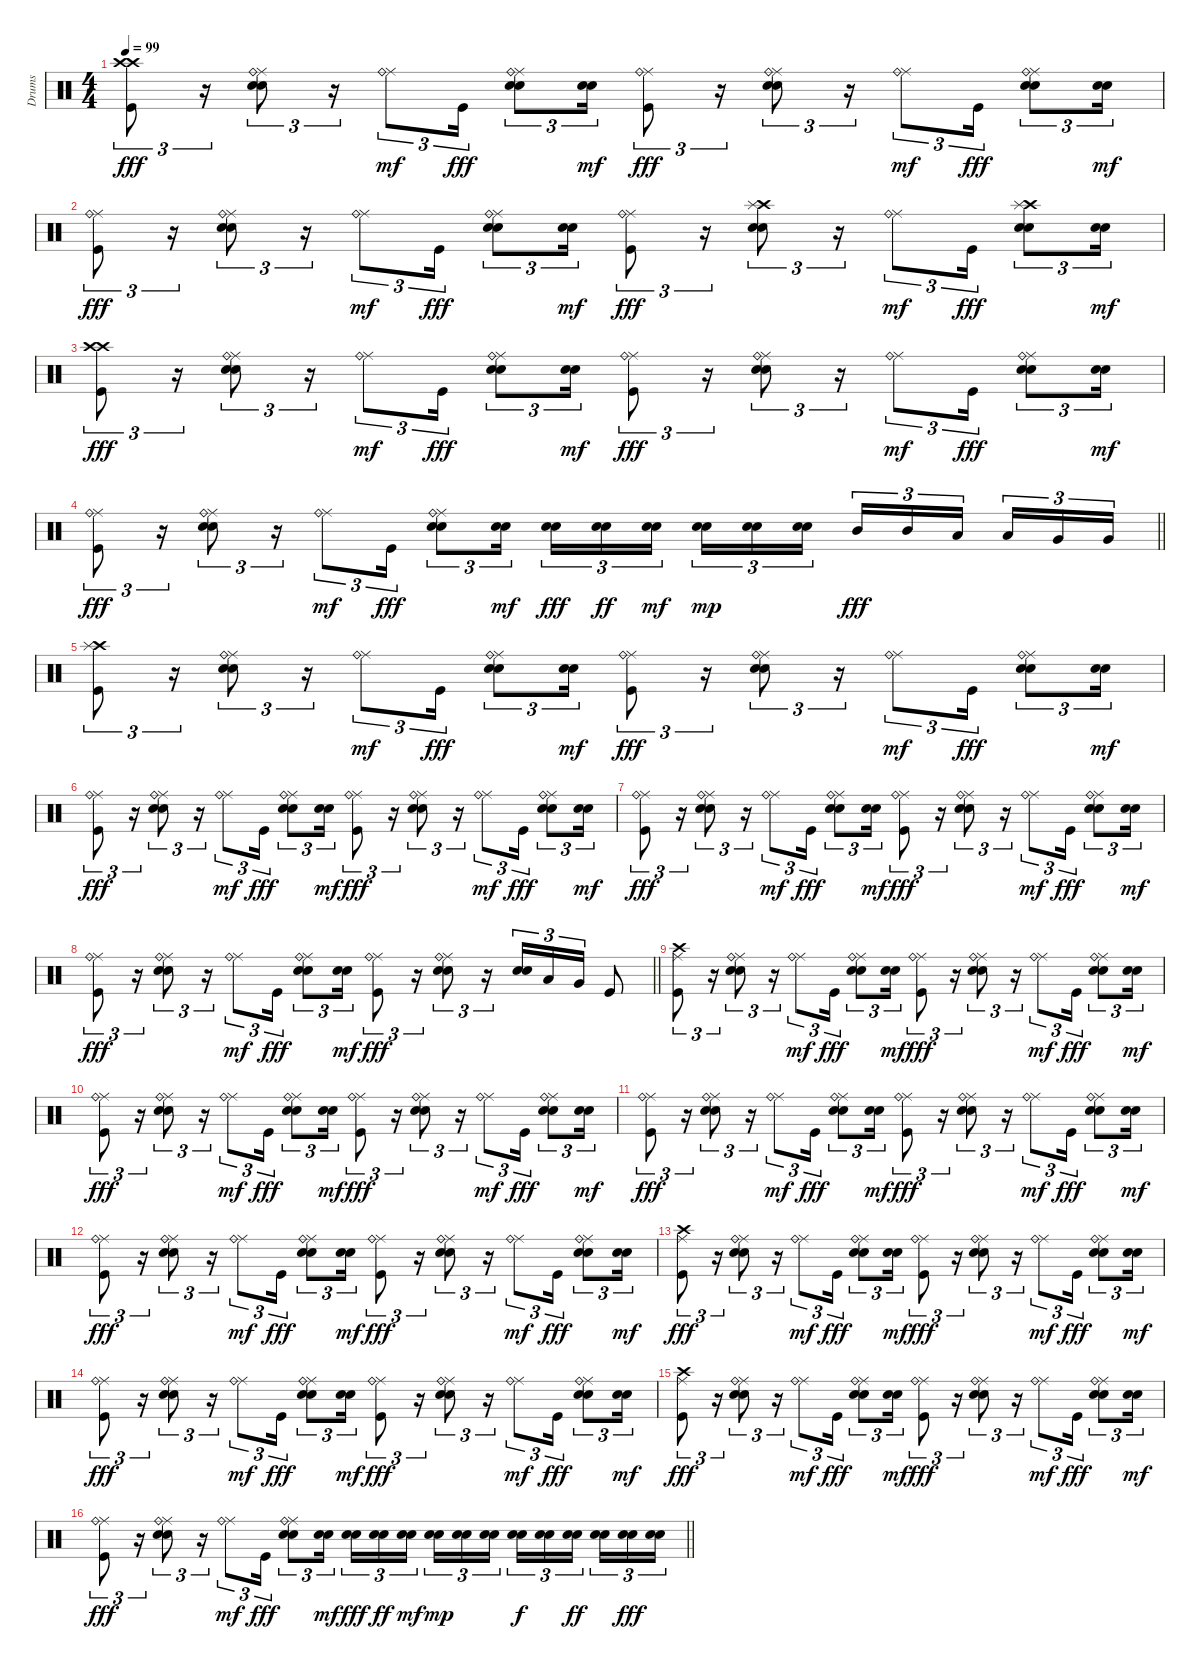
\track ("Drums" "Drums") {instrument percussion}
\staff {score}
\articulation defaults
\ts (4 4)
\tempo 99
\clef neutral
\ks c
("Crash high (hit)" "Crash high (hit)" "Kick (hit)").8{tu (3 2) dy fff} r.16{tu (3 2)} ("Ride (middle)" "Ride (bell)" "Snare (hit) 2" "Electric Snare (hit)").8{tu (3 2)} r.16{tu (3 2)} ("Ride (middle)" "Ride (bell)").8{tu (3 2) dy mf} "Kick (hit)".16{tu (3 2) dy fff} ("Ride (middle)" "Ride (bell)" "Snare (hit) 2" "Electric Snare (hit)").8{tu (3 2)} ("Snare (hit) 2" "Electric Snare (hit)").16{tu (3 2) dy mf} ("Ride (middle)" "Ride (bell)" "Kick (hit)").8{tu (3 2) dy fff} r.16{tu (3 2)} ("Ride (middle)" "Ride (bell)" "Snare (hit) 2" "Electric Snare (hit)").8{tu (3 2)} r.16{tu (3 2)} ("Ride (middle)" "Ride (bell)").8{tu (3 2) dy mf} "Kick (hit)".16{tu (3 2) dy fff} ("Ride (middle)" "Ride (bell)" "Snare (hit) 2" "Electric Snare (hit)").8{tu (3 2)} ("Snare (hit) 2" "Electric Snare (hit)").16{tu (3 2) dy mf} |
("Ride (middle)" "Ride (bell)" "Kick (hit)").8{tu (3 2) dy fff} r.16{tu (3 2)} ("Ride (middle)" "Ride (bell)" "Snare (hit) 2" "Electric Snare (hit)").8{tu (3 2)} r.16{tu (3 2)} ("Ride (middle)" "Ride (bell)").8{tu (3 2) dy mf} "Kick (hit)".16{tu (3 2) dy fff} ("Ride (middle)" "Ride (bell)" "Snare (hit) 2" "Electric Snare (hit)").8{tu (3 2)} ("Snare (hit) 2" "Electric Snare (hit)").16{tu (3 2) dy mf} ("Ride (middle)" "Ride (bell)" "Kick (hit)").8{tu (3 2) dy fff} r.16{tu (3 2)} ("Crash high (hit)" "Splash (hit)" "Snare (hit) 2" "Electric Snare (hit)").8{tu (3 2)} r.16{tu (3 2)} ("Ride (middle)" "Ride (bell)").8{tu (3 2) dy mf} "Kick (hit)".16{tu (3 2) dy fff} ("Crash high (hit)" "Splash (hit)" "Snare (hit) 2" "Electric Snare (hit)").8{tu (3 2)} ("Snare (hit) 2" "Electric Snare (hit)").16{tu (3 2) dy mf} |
("Crash high (hit)" "Crash high (hit)" "Kick (hit)").8{tu (3 2) dy fff} r.16{tu (3 2)} ("Ride (middle)" "Ride (bell)" "Snare (hit) 2" "Electric Snare (hit)").8{tu (3 2)} r.16{tu (3 2)} ("Ride (middle)" "Ride (bell)").8{tu (3 2) dy mf} "Kick (hit)".16{tu (3 2) dy fff} ("Ride (middle)" "Ride (bell)" "Snare (hit) 2" "Electric Snare (hit)").8{tu (3 2)} ("Snare (hit) 2" "Electric Snare (hit)").16{tu (3 2) dy mf} ("Ride (middle)" "Ride (bell)" "Kick (hit)").8{tu (3 2) dy fff} r.16{tu (3 2)} ("Ride (middle)" "Ride (bell)" "Snare (hit) 2" "Electric Snare (hit)").8{tu (3 2)} r.16{tu (3 2)} ("Ride (middle)" "Ride (bell)").8{tu (3 2) dy mf} "Kick (hit)".16{tu (3 2) dy fff} ("Ride (middle)" "Ride (bell)" "Snare (hit) 2" "Electric Snare (hit)").8{tu (3 2)} ("Snare (hit) 2" "Electric Snare (hit)").16{tu (3 2) dy mf} |
\barLineRight lightlight
("Ride (middle)" "Ride (bell)" "Kick (hit)").8{tu (3 2) dy fff} r.16{tu (3 2)} ("Ride (middle)" "Ride (bell)" "Snare (hit) 2" "Electric Snare (hit)").8{tu (3 2)} r.16{tu (3 2)} ("Ride (middle)" "Ride (bell)").8{tu (3 2) dy mf} "Kick (hit)".16{tu (3 2) dy fff} ("Ride (middle)" "Ride (bell)" "Snare (hit) 2" "Electric Snare (hit)").8{tu (3 2)} ("Snare (hit) 2" "Electric Snare (hit)").16{tu (3 2) dy mf} ("Snare (hit) 2" "Electric Snare (hit)").16{tu (3 2) dy fff} ("Snare (hit) 2" "Electric Snare (hit)").16{tu (3 2) dy ff} ("Snare (hit) 2" "Electric Snare (hit)").16{tu (3 2) dy mf beam splitsecondary} ("Snare (hit) 2" "Electric Snare (hit)").16{tu (3 2) dy mp} ("Snare (hit) 2" "Electric Snare (hit)").16{tu (3 2)} ("Snare (hit) 2" "Electric Snare (hit)").16{tu (3 2)} "Mid Tom (hit)".16{tu (3 2) dy fff} "Mid Tom (hit)".16{tu (3 2)} "Low Tom (hit)".16{tu (3 2) beam splitsecondary} "Low Tom (hit)".16{tu (3 2)} "Very Low Tom (hit)".16{tu (3 2)} "Very Low Tom (hit)".16{tu (3 2)} |
("Crash high (hit)" "Splash (hit)" "Kick (hit)").8{tu (3 2)} r.16{tu (3 2)} ("Ride (middle)" "Ride (bell)" "Snare (hit) 2" "Electric Snare (hit)").8{tu (3 2)} r.16{tu (3 2)} ("Ride (middle)" "Ride (bell)").8{tu (3 2) dy mf} "Kick (hit)".16{tu (3 2) dy fff} ("Ride (middle)" "Ride (bell)" "Snare (hit) 2" "Electric Snare (hit)").8{tu (3 2)} ("Snare (hit) 2" "Electric Snare (hit)").16{tu (3 2) dy mf} ("Ride (middle)" "Ride (bell)" "Kick (hit)").8{tu (3 2) dy fff} r.16{tu (3 2)} ("Ride (middle)" "Ride (bell)" "Snare (hit) 2" "Electric Snare (hit)").8{tu (3 2)} r.16{tu (3 2)} ("Ride (middle)" "Ride (bell)").8{tu (3 2) dy mf} "Kick (hit)".16{tu (3 2) dy fff} ("Ride (middle)" "Ride (bell)" "Snare (hit) 2" "Electric Snare (hit)").8{tu (3 2)} ("Snare (hit) 2" "Electric Snare (hit)").16{tu (3 2) dy mf} |
("Ride (middle)" "Ride (bell)" "Kick (hit)").8{tu (3 2) dy fff} r.16{tu (3 2)} ("Ride (middle)" "Ride (bell)" "Snare (hit) 2" "Electric Snare (hit)").8{tu (3 2)} r.16{tu (3 2)} ("Ride (middle)" "Ride (bell)").8{tu (3 2) dy mf} "Kick (hit)".16{tu (3 2) dy fff} ("Ride (middle)" "Ride (bell)" "Snare (hit) 2" "Electric Snare (hit)").8{tu (3 2)} ("Snare (hit) 2" "Electric Snare (hit)").16{tu (3 2) dy mf} ("Ride (middle)" "Ride (bell)" "Kick (hit)").8{tu (3 2) dy fff} r.16{tu (3 2)} ("Ride (middle)" "Ride (bell)" "Snare (hit) 2" "Electric Snare (hit)").8{tu (3 2)} r.16{tu (3 2)} ("Ride (middle)" "Ride (bell)").8{tu (3 2) dy mf} "Kick (hit)".16{tu (3 2) dy fff} ("Ride (middle)" "Ride (bell)" "Snare (hit) 2" "Electric Snare (hit)").8{tu (3 2)} ("Snare (hit) 2" "Electric Snare (hit)").16{tu (3 2) dy mf} |
("Ride (middle)" "Ride (bell)" "Kick (hit)").8{tu (3 2) dy fff} r.16{tu (3 2)} ("Ride (middle)" "Ride (bell)" "Snare (hit) 2" "Electric Snare (hit)").8{tu (3 2)} r.16{tu (3 2)} ("Ride (middle)" "Ride (bell)").8{tu (3 2) dy mf} "Kick (hit)".16{tu (3 2) dy fff} ("Ride (middle)" "Ride (bell)" "Snare (hit) 2" "Electric Snare (hit)").8{tu (3 2)} ("Snare (hit) 2" "Electric Snare (hit)").16{tu (3 2) dy mf} ("Ride (middle)" "Ride (bell)" "Kick (hit)").8{tu (3 2) dy fff} r.16{tu (3 2)} ("Ride (middle)" "Ride (bell)" "Snare (hit) 2" "Electric Snare (hit)").8{tu (3 2)} r.16{tu (3 2)} ("Ride (middle)" "Ride (bell)").8{tu (3 2) dy mf} "Kick (hit)".16{tu (3 2) dy fff} ("Ride (middle)" "Ride (bell)" "Snare (hit) 2" "Electric Snare (hit)").8{tu (3 2)} ("Snare (hit) 2" "Electric Snare (hit)").16{tu (3 2) dy mf} |
\barLineRight lightlight
("Ride (middle)" "Ride (bell)" "Kick (hit)").8{tu (3 2) dy fff} r.16{tu (3 2)} ("Ride (middle)" "Ride (bell)" "Snare (hit) 2" "Electric Snare (hit)").8{tu (3 2)} r.16{tu (3 2)} ("Ride (middle)" "Ride (bell)").8{tu (3 2) dy mf} "Kick (hit)".16{tu (3 2) dy fff} ("Ride (middle)" "Ride (bell)" "Snare (hit) 2" "Electric Snare (hit)").8{tu (3 2)} ("Snare (hit) 2" "Electric Snare (hit)").16{tu (3 2) dy mf} ("Ride (middle)" "Ride (bell)" "Kick (hit)").8{tu (3 2) dy fff} r.16{tu (3 2)} ("Ride (middle)" "Ride (bell)" "Snare (hit) 2" "Electric Snare (hit)").8{tu (3 2)} r.16{tu (3 2)} ("Snare (hit) 2" "Electric Snare (hit)").16{tu (3 2)} "Low Tom (hit)".16{tu (3 2)} "Very Low Tom (hit)".16{tu (3 2)} "Kick (hit)".8 |
("Ride (middle)" "Crash high (hit)" "Kick (hit)").8{tu (3 2)} r.16{tu (3 2)} ("Ride (middle)" "Ride (bell)" "Snare (hit) 2" "Electric Snare (hit)").8{tu (3 2)} r.16{tu (3 2)} ("Ride (middle)" "Ride (bell)").8{tu (3 2) dy mf} "Kick (hit)".16{tu (3 2) dy fff} ("Ride (middle)" "Ride (bell)" "Snare (hit) 2" "Electric Snare (hit)").8{tu (3 2)} ("Snare (hit) 2" "Electric Snare (hit)").16{tu (3 2) dy mf} ("Ride (middle)" "Ride (bell)" "Kick (hit)").8{tu (3 2) dy fff} r.16{tu (3 2)} ("Ride (middle)" "Ride (bell)" "Snare (hit) 2" "Electric Snare (hit)").8{tu (3 2)} r.16{tu (3 2)} ("Ride (middle)" "Ride (bell)").8{tu (3 2) dy mf} "Kick (hit)".16{tu (3 2) dy fff} ("Ride (middle)" "Ride (bell)" "Snare (hit) 2" "Electric Snare (hit)").8{tu (3 2)} ("Snare (hit) 2" "Electric Snare (hit)").16{tu (3 2) dy mf} |
("Ride (middle)" "Ride (bell)" "Kick (hit)").8{tu (3 2) dy fff} r.16{tu (3 2)} ("Ride (middle)" "Ride (bell)" "Snare (hit) 2" "Electric Snare (hit)").8{tu (3 2)} r.16{tu (3 2)} ("Ride (middle)" "Ride (bell)").8{tu (3 2) dy mf} "Kick (hit)".16{tu (3 2) dy fff} ("Ride (middle)" "Ride (bell)" "Snare (hit) 2" "Electric Snare (hit)").8{tu (3 2)} ("Snare (hit) 2" "Electric Snare (hit)").16{tu (3 2) dy mf} ("Ride (middle)" "Ride (bell)" "Kick (hit)").8{tu (3 2) dy fff} r.16{tu (3 2)} ("Ride (middle)" "Ride (bell)" "Snare (hit) 2" "Electric Snare (hit)").8{tu (3 2)} r.16{tu (3 2)} ("Ride (middle)" "Ride (bell)").8{tu (3 2) dy mf} "Kick (hit)".16{tu (3 2) dy fff} ("Ride (middle)" "Ride (bell)" "Snare (hit) 2" "Electric Snare (hit)").8{tu (3 2)} ("Snare (hit) 2" "Electric Snare (hit)").16{tu (3 2) dy mf} |
("Ride (middle)" "Ride (bell)" "Kick (hit)").8{tu (3 2) dy fff} r.16{tu (3 2)} ("Ride (middle)" "Ride (bell)" "Snare (hit) 2" "Electric Snare (hit)").8{tu (3 2)} r.16{tu (3 2)} ("Ride (middle)" "Ride (bell)").8{tu (3 2) dy mf} "Kick (hit)".16{tu (3 2) dy fff} ("Ride (middle)" "Ride (bell)" "Snare (hit) 2" "Electric Snare (hit)").8{tu (3 2)} ("Snare (hit) 2" "Electric Snare (hit)").16{tu (3 2) dy mf} ("Ride (middle)" "Ride (bell)" "Kick (hit)").8{tu (3 2) dy fff} r.16{tu (3 2)} ("Ride (middle)" "Ride (bell)" "Snare (hit) 2" "Electric Snare (hit)").8{tu (3 2)} r.16{tu (3 2)} ("Ride (middle)" "Ride (bell)").8{tu (3 2) dy mf} "Kick (hit)".16{tu (3 2) dy fff} ("Ride (middle)" "Ride (bell)" "Snare (hit) 2" "Electric Snare (hit)").8{tu (3 2)} ("Snare (hit) 2" "Electric Snare (hit)").16{tu (3 2) dy mf} |
("Ride (middle)" "Ride (bell)" "Kick (hit)").8{tu (3 2) dy fff} r.16{tu (3 2)} ("Ride (middle)" "Ride (bell)" "Snare (hit) 2" "Electric Snare (hit)").8{tu (3 2)} r.16{tu (3 2)} ("Ride (middle)" "Ride (bell)").8{tu (3 2) dy mf} "Kick (hit)".16{tu (3 2) dy fff} ("Ride (middle)" "Ride (bell)" "Snare (hit) 2" "Electric Snare (hit)").8{tu (3 2)} ("Snare (hit) 2" "Electric Snare (hit)").16{tu (3 2) dy mf} ("Ride (middle)" "Ride (bell)" "Kick (hit)").8{tu (3 2) dy fff} r.16{tu (3 2)} ("Ride (middle)" "Ride (bell)" "Snare (hit) 2" "Electric Snare (hit)").8{tu (3 2)} r.16{tu (3 2)} ("Ride (middle)" "Ride (bell)").8{tu (3 2) dy mf} "Kick (hit)".16{tu (3 2) dy fff} ("Ride (middle)" "Ride (bell)" "Snare (hit) 2" "Electric Snare (hit)").8{tu (3 2)} ("Snare (hit) 2" "Electric Snare (hit)").16{tu (3 2) dy mf} |
("Ride (middle)" "Crash high (hit)" "Kick (hit)").8{tu (3 2) dy fff} r.16{tu (3 2)} ("Ride (middle)" "Ride (bell)" "Snare (hit) 2" "Electric Snare (hit)").8{tu (3 2)} r.16{tu (3 2)} ("Ride (middle)" "Ride (bell)").8{tu (3 2) dy mf} "Kick (hit)".16{tu (3 2) dy fff} ("Ride (middle)" "Ride (bell)" "Snare (hit) 2" "Electric Snare (hit)").8{tu (3 2)} ("Snare (hit) 2" "Electric Snare (hit)").16{tu (3 2) dy mf} ("Ride (middle)" "Ride (bell)" "Kick (hit)").8{tu (3 2) dy fff} r.16{tu (3 2)} ("Ride (middle)" "Ride (bell)" "Snare (hit) 2" "Electric Snare (hit)").8{tu (3 2)} r.16{tu (3 2)} ("Ride (middle)" "Ride (bell)").8{tu (3 2) dy mf} "Kick (hit)".16{tu (3 2) dy fff} ("Ride (middle)" "Ride (bell)" "Snare (hit) 2" "Electric Snare (hit)").8{tu (3 2)} ("Snare (hit) 2" "Electric Snare (hit)").16{tu (3 2) dy mf} |
("Ride (middle)" "Ride (bell)" "Kick (hit)").8{tu (3 2) dy fff} r.16{tu (3 2)} ("Ride (middle)" "Ride (bell)" "Snare (hit) 2" "Electric Snare (hit)").8{tu (3 2)} r.16{tu (3 2)} ("Ride (middle)" "Ride (bell)").8{tu (3 2) dy mf} "Kick (hit)".16{tu (3 2) dy fff} ("Ride (middle)" "Ride (bell)" "Snare (hit) 2" "Electric Snare (hit)").8{tu (3 2)} ("Snare (hit) 2" "Electric Snare (hit)").16{tu (3 2) dy mf} ("Ride (middle)" "Ride (bell)" "Kick (hit)").8{tu (3 2) dy fff} r.16{tu (3 2)} ("Ride (middle)" "Ride (bell)" "Snare (hit) 2" "Electric Snare (hit)").8{tu (3 2)} r.16{tu (3 2)} ("Ride (middle)" "Ride (bell)").8{tu (3 2) dy mf} "Kick (hit)".16{tu (3 2) dy fff} ("Ride (middle)" "Ride (bell)" "Snare (hit) 2" "Electric Snare (hit)").8{tu (3 2)} ("Snare (hit) 2" "Electric Snare (hit)").16{tu (3 2) dy mf} |
("Ride (middle)" "Crash high (hit)" "Kick (hit)").8{tu (3 2) dy fff} r.16{tu (3 2)} ("Ride (middle)" "Ride (bell)" "Snare (hit) 2" "Electric Snare (hit)").8{tu (3 2)} r.16{tu (3 2)} ("Ride (middle)" "Ride (bell)").8{tu (3 2) dy mf} "Kick (hit)".16{tu (3 2) dy fff} ("Ride (middle)" "Ride (bell)" "Snare (hit) 2" "Electric Snare (hit)").8{tu (3 2)} ("Snare (hit) 2" "Electric Snare (hit)").16{tu (3 2) dy mf} ("Ride (middle)" "Ride (bell)" "Kick (hit)").8{tu (3 2) dy fff} r.16{tu (3 2)} ("Ride (middle)" "Ride (bell)" "Snare (hit) 2" "Electric Snare (hit)").8{tu (3 2)} r.16{tu (3 2)} ("Ride (middle)" "Ride (bell)").8{tu (3 2) dy mf} "Kick (hit)".16{tu (3 2) dy fff} ("Ride (middle)" "Ride (bell)" "Snare (hit) 2" "Electric Snare (hit)").8{tu (3 2)} ("Snare (hit) 2" "Electric Snare (hit)").16{tu (3 2) dy mf} |
\barLineRight lightlight
("Ride (middle)" "Ride (bell)" "Kick (hit)").8{tu (3 2) dy fff} r.16{tu (3 2)} ("Ride (middle)" "Ride (bell)" "Snare (hit) 2" "Electric Snare (hit)").8{tu (3 2)} r.16{tu (3 2)} ("Ride (middle)" "Ride (bell)").8{tu (3 2) dy mf} "Kick (hit)".16{tu (3 2) dy fff} ("Ride (middle)" "Ride (bell)" "Snare (hit) 2" "Electric Snare (hit)").8{tu (3 2)} ("Snare (hit) 2" "Electric Snare (hit)").16{tu (3 2) dy mf} ("Snare (hit) 2" "Electric Snare (hit)").16{tu (3 2) dy fff} ("Snare (hit) 2" "Electric Snare (hit)").16{tu (3 2) dy ff} ("Snare (hit) 2" "Electric Snare (hit)").16{tu (3 2) dy mf beam splitsecondary} ("Snare (hit) 2" "Electric Snare (hit)").16{tu (3 2) dy mp} ("Snare (hit) 2" "Electric Snare (hit)").16{tu (3 2)} ("Snare (hit) 2" "Electric Snare (hit)").16{tu (3 2)} ("Snare (hit) 2" "Electric Snare (hit)").16{tu (3 2) dy f} ("Snare (hit) 2" "Electric Snare (hit)").16{tu (3 2)} ("Snare (hit) 2" "Electric Snare (hit)").16{tu (3 2) dy ff beam splitsecondary} ("Snare (hit) 2" "Electric Snare (hit)").16{tu (3 2)} ("Snare (hit) 2" "Electric Snare (hit)").16{tu (3 2) dy fff} ("Snare (hit) 2" "Electric Snare (hit)").16{tu (3 2)}
